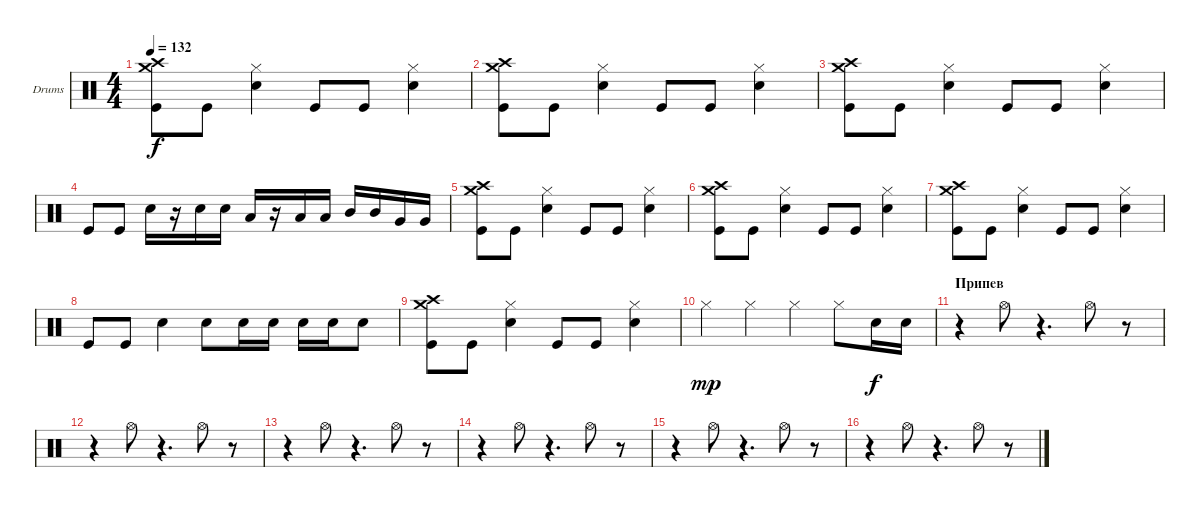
\bracketExtendMode groupsimilarinstruments
\firstSystemTrackNameOrientation horizontal
\otherSystemsTrackNameOrientation horizontal
\track ("Александр Львов" "Drums") {instrument percussion}
\staff {score}
\articulation defaults
\ts (4 4)
\tempo 132
\clef neutral
\ks c
("Kick (hit)" "Crash medium (hit)" "Crash high (hit)").8{dy f} "Kick (hit)".8 ("Snare (hit) 2" "Hi-Hat (closed)").4 "Kick (hit)".8 "Kick (hit)".8 ("Snare (hit) 2" "Hi-Hat (closed)").4 |
("Kick (hit)" "Crash medium (hit)" "Crash high (hit)").8 "Kick (hit)".8 ("Snare (hit) 2" "Hi-Hat (closed)").4 "Kick (hit)".8 "Kick (hit)".8 ("Snare (hit) 2" "Hi-Hat (closed)").4 |
("Kick (hit)" "Crash medium (hit)" "Crash high (hit)").8 "Kick (hit)".8 ("Snare (hit) 2" "Hi-Hat (closed)").4 "Kick (hit)".8 "Kick (hit)".8 ("Snare (hit) 2" "Hi-Hat (closed)").4 |
"Kick (hit)".8 "Kick (hit)".8 "Snare (hit) 2".16 r.16 "Snare (hit) 2".16 "Snare (hit) 2".16 "Low Tom (hit)".16 r.16 "Low Tom (hit)".16 "Low Tom (hit)".16 "Mid Tom (hit)".16 "Mid Tom (hit)".16 "Very Low Tom (hit)".16 "Very Low Tom (hit)".16 |
("Kick (hit)" "Crash medium (hit)" "Crash high (hit)").8 "Kick (hit)".8 ("Snare (hit) 2" "Hi-Hat (closed)").4 "Kick (hit)".8 "Kick (hit)".8 ("Snare (hit) 2" "Hi-Hat (closed)").4 |
("Kick (hit)" "Crash medium (hit)" "Crash high (hit)").8 "Kick (hit)".8 ("Snare (hit) 2" "Hi-Hat (closed)").4 "Kick (hit)".8 "Kick (hit)".8 ("Snare (hit) 2" "Hi-Hat (closed)").4 |
("Kick (hit)" "Crash medium (hit)" "Crash high (hit)").8 "Kick (hit)".8 ("Snare (hit) 2" "Hi-Hat (closed)").4 "Kick (hit)".8 "Kick (hit)".8 ("Snare (hit) 2" "Hi-Hat (closed)").4 |
"Kick (hit)".8 "Kick (hit)".8 "Snare (hit) 2".4 "Snare (hit) 2".8 "Snare (hit) 2".16 "Snare (hit) 2".16 "Snare (hit) 2".16 "Snare (hit) 2".16 "Snare (hit) 2".8 |
("Kick (hit)" "Crash medium (hit)" "Crash high (hit)").8 "Kick (hit)".8 ("Snare (hit) 2" "Hi-Hat (closed)").4 "Kick (hit)".8 "Kick (hit)".8 ("Snare (hit) 2" "Hi-Hat (closed)").4 |
"Hi-Hat (closed)".4{dy mp} "Hi-Hat (closed)".4 "Hi-Hat (closed)".4 "Hi-Hat (closed)".8 "Snare (hit) 2".16{dy f} "Snare (hit) 2".16 |
\section ("" "Припев")
r.4 "Hi-Hat (open)".8 r.4{d} "Hi-Hat (open)".8 r.8 |
r.4 "Hi-Hat (open)".8 r.4{d} "Hi-Hat (open)".8 r.8 |
r.4 "Hi-Hat (open)".8 r.4{d} "Hi-Hat (open)".8 r.8 |
r.4 "Hi-Hat (open)".8 r.4{d} "Hi-Hat (open)".8 r.8 |
r.4 "Hi-Hat (open)".8 r.4{d} "Hi-Hat (open)".8 r.8 |
r.4 "Hi-Hat (open)".8 r.4{d} "Hi-Hat (open)".8 r.8
